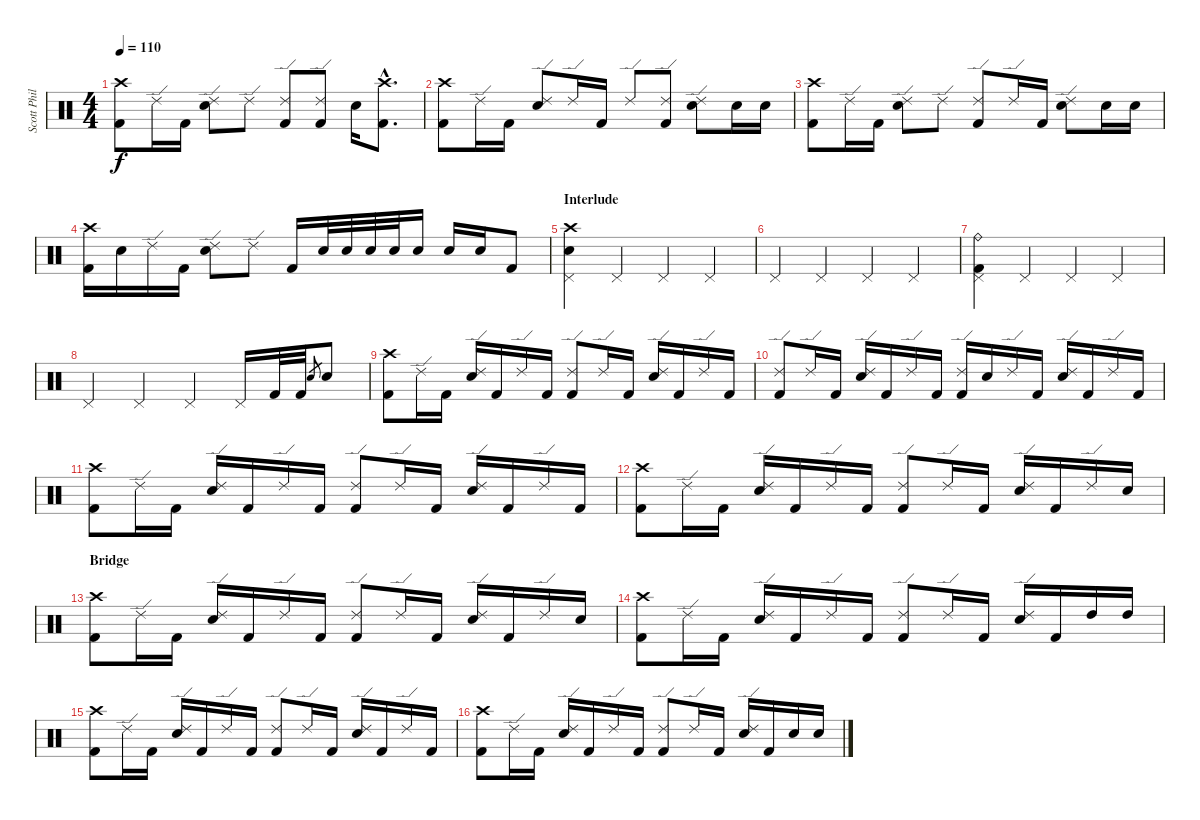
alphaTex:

\track ("Scott Phillips" "Scott Phil") {instrument percussion}
\staff {score}
\articulation defaults
\ts (4 4)
\tempo 110
\clef neutral
\ks c
("Crash high (hit)" "Kick (hit) 2").8{dy f} "Ride (edge) 2".16 "Kick (hit) 2".16 ("Ride (edge) 2" "Snare (hit) 2").8 "Ride (edge) 2".8 ("Ride (edge) 2" "Kick (hit) 2").8 ("Ride (edge) 2" "Kick (hit) 2").8 "Snare (hit) 2".16 ("Crash high (hit)"{hac} "Kick (hit) 2"{hac}).8{d} |
("Crash high (hit)" "Kick (hit) 2").8 "Ride (edge) 2".16 "Kick (hit) 2".16 ("Ride (edge) 2" "Snare (hit) 2").8 "Ride (edge) 2".16 "Kick (hit) 2".16 "Ride (edge) 2".8 ("Ride (edge) 2" "Kick (hit) 2").8 ("Ride (edge) 2" "Snare (hit) 2").8 "Snare (hit) 2".16 "Snare (hit) 2".16 |
("Crash high (hit)" "Kick (hit) 2").8 "Ride (edge) 2".16 "Kick (hit) 2".16 ("Ride (edge) 2" "Snare (hit) 2").8 "Ride (edge) 2".8 ("Ride (edge) 2" "Kick (hit) 2").8 "Ride (edge) 2".16 "Kick (hit) 2".16 ("Ride (edge) 2" "Snare (hit) 2").8 "Snare (hit) 2".16 "Snare (hit) 2".16 |
("Crash high (hit)" "Kick (hit) 2").16 "Snare (hit) 2".16 "Ride (edge) 2".16 "Kick (hit) 2".16 ("Ride (edge) 2" "Snare (hit) 2").8 "Ride (edge) 2".8 "Kick (hit) 2".16 "Snare (hit) 2".32 "Snare (hit) 2".32 "Snare (hit) 2".32 "Snare (hit) 2".32 "Snare (hit) 2".16 "Snare (hit) 2".16 "Snare (hit) 2".16 "Kick (hit) 2".8 |
\section ("" "Interlude")
("Crash high (hit)" "Snare (hit) 2" "Pedal Hi-Hat (hit)").4 "Pedal Hi-Hat (hit)".4 "Pedal Hi-Hat (hit)".4 "Pedal Hi-Hat (hit)".4 |
"Pedal Hi-Hat (hit)".4 "Pedal Hi-Hat (hit)".4 "Pedal Hi-Hat (hit)".4 "Pedal Hi-Hat (hit)".4 |
("Ride (bell)" "Pedal Hi-Hat (hit)" "Kick (hit) 2").4 "Pedal Hi-Hat (hit)".4 "Pedal Hi-Hat (hit)".4 "Pedal Hi-Hat (hit)".4 |
"Pedal Hi-Hat (hit)".4 "Pedal Hi-Hat (hit)".4 "Pedal Hi-Hat (hit)".4 "Pedal Hi-Hat (hit)".16 "Kick (hit) 2".32 "Kick (hit) 2".32 "Snare (hit) 2".8{gr} "Snare (hit) 2".8 |
("Crash high (hit)" "Kick (hit) 2").8 "Ride (edge) 2".16 "Kick (hit) 2".16 ("Ride (edge) 2" "Snare (hit) 2").16 "Kick (hit) 2".16 "Ride (edge) 2".16 "Kick (hit) 2".16 ("Ride (edge) 2" "Kick (hit) 2").8 "Ride (edge) 2".16 "Kick (hit) 2".16 ("Ride (edge) 2" "Snare (hit) 2").16 "Kick (hit) 2".16 "Ride (edge) 2".16 "Kick (hit) 2".16 |
("Ride (edge) 2" "Kick (hit) 2").8 "Ride (edge) 2".16 "Kick (hit) 2".16 ("Ride (edge) 2" "Snare (hit) 2").16 "Kick (hit) 2".16 "Ride (edge) 2".16 "Kick (hit) 2".16 ("Ride (edge) 2" "Kick (hit) 2").16 "Snare (hit) 2".16 "Ride (edge) 2".16 "Kick (hit) 2".16 ("Ride (edge) 2" "Snare (hit) 2").16 "Kick (hit) 2".16 "Ride (edge) 2".16 "Kick (hit) 2".16 |
("Crash high (hit)" "Kick (hit) 2").8 "Ride (edge) 2".16 "Kick (hit) 2".16 ("Ride (edge) 2" "Snare (hit) 2").16 "Kick (hit) 2".16 "Ride (edge) 2".16 "Kick (hit) 2".16 ("Ride (edge) 2" "Kick (hit) 2").8 "Ride (edge) 2".16 "Kick (hit) 2".16 ("Ride (edge) 2" "Snare (hit) 2").16 "Kick (hit) 2".16 "Ride (edge) 2".16 "Kick (hit) 2".16 |
("Crash high (hit)" "Kick (hit) 2").8 "Ride (edge) 2".16 "Kick (hit) 2".16 ("Ride (edge) 2" "Snare (hit) 2").16 "Kick (hit) 2".16 "Ride (edge) 2".16 "Kick (hit) 2".16 ("Ride (edge) 2" "Kick (hit) 2").8 "Ride (edge) 2".16 "Kick (hit) 2".16 ("Ride (edge) 2" "Snare (hit) 2").16 "Kick (hit) 2".16 "Ride (edge) 2".16 "Snare (hit) 2".16 |
\section ("" "Bridge")
("Crash high (hit)" "Kick (hit) 2").8 "Ride (edge) 2".16 "Kick (hit) 2".16 ("Ride (edge) 2" "Snare (hit) 2").16 "Kick (hit) 2".16 "Ride (edge) 2".16 "Kick (hit) 2".16 ("Ride (edge) 2" "Kick (hit) 2").8 "Ride (edge) 2".16 "Kick (hit) 2".16 ("Ride (edge) 2" "Snare (hit) 2").16 "Kick (hit) 2".16 "Ride (edge) 2".16 "Snare (hit) 2".16 |
("Crash high (hit)" "Kick (hit) 2").8 "Ride (edge) 2".16 "Kick (hit) 2".16 ("Ride (edge) 2" "Snare (hit) 2").16 "Kick (hit) 2".16 "Ride (edge) 2".16 "Kick (hit) 2".16 ("Ride (edge) 2" "Kick (hit) 2").8 "Ride (edge) 2".16 "Kick (hit) 2".16 ("Ride (edge) 2" "Snare (hit) 2").16 "Kick (hit) 2".16 "High Tom (hit)".16 "High Tom (hit)".16 |
("Crash high (hit)" "Kick (hit) 2").8 "Ride (edge) 2".16 "Kick (hit) 2".16 ("Ride (edge) 2" "Snare (hit) 2").16 "Kick (hit) 2".16 "Ride (edge) 2".16 "Kick (hit) 2".16 ("Ride (edge) 2" "Kick (hit) 2").8 "Ride (edge) 2".16 "Kick (hit) 2".16 ("Ride (edge) 2" "Snare (hit) 2").16 "Kick (hit) 2".16 "Ride (edge) 2".16 "Kick (hit) 2".16 |
("Crash high (hit)" "Kick (hit) 2").8 "Ride (edge) 2".16 "Kick (hit) 2".16 ("Ride (edge) 2" "Snare (hit) 2").16 "Kick (hit) 2".16 "Ride (edge) 2".16 "Kick (hit) 2".16 ("Ride (edge) 2" "Kick (hit) 2").8 "Ride (edge) 2".16 "Kick (hit) 2".16 ("Ride (edge) 2" "Snare (hit) 2").16 "Kick (hit) 2".16 "Snare (hit) 2".16 "Snare (hit) 2".16
